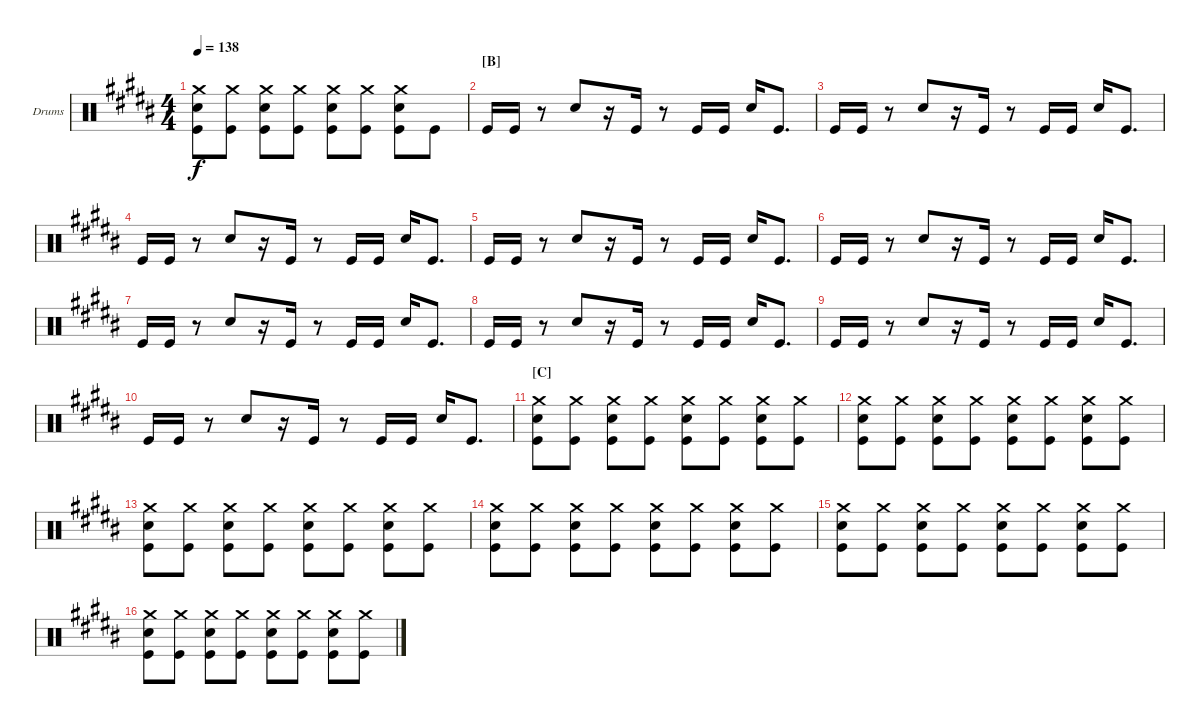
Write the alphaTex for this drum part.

\bracketExtendMode groupsimilarinstruments
\firstSystemTrackNameOrientation horizontal
\otherSystemsTrackNameOrientation horizontal
\track ("Fabrizio Moretti" "Drums") {instrument percussion}
\staff {score}
\articulation defaults
\ts (4 4)
\tempo 138
\clef neutral
\ks b
("Snare (hit) 2" "Kick (hit)" "Crash medium (hit)").8{dy f} ("Kick (hit)" "Crash medium (hit)").8 ("Snare (hit) 2" "Kick (hit)" "Crash medium (hit)").8 ("Kick (hit)" "Crash medium (hit)").8 ("Snare (hit) 2" "Kick (hit)" "Crash medium (hit)").8 ("Kick (hit)" "Crash medium (hit)").8 ("Snare (hit) 2" "Kick (hit)" "Crash medium (hit)").8 "Kick (hit)".8 |
\section ("B" "")
"Kick (hit)".16 "Kick (hit)".16 r.8 "Snare (hit) 2".8 r.16 "Kick (hit)".16 r.8 "Kick (hit)".16 "Kick (hit)".16 "Snare (hit) 2".16 "Kick (hit)".8{d} |
"Kick (hit)".16 "Kick (hit)".16 r.8 "Snare (hit) 2".8 r.16 "Kick (hit)".16 r.8 "Kick (hit)".16 "Kick (hit)".16 "Snare (hit) 2".16 "Kick (hit)".8{d} |
"Kick (hit)".16 "Kick (hit)".16 r.8 "Snare (hit) 2".8 r.16 "Kick (hit)".16 r.8 "Kick (hit)".16 "Kick (hit)".16 "Snare (hit) 2".16 "Kick (hit)".8{d} |
"Kick (hit)".16 "Kick (hit)".16 r.8 "Snare (hit) 2".8 r.16 "Kick (hit)".16 r.8 "Kick (hit)".16 "Kick (hit)".16 "Snare (hit) 2".16 "Kick (hit)".8{d} |
"Kick (hit)".16 "Kick (hit)".16 r.8 "Snare (hit) 2".8 r.16 "Kick (hit)".16 r.8 "Kick (hit)".16 "Kick (hit)".16 "Snare (hit) 2".16 "Kick (hit)".8{d} |
"Kick (hit)".16 "Kick (hit)".16 r.8 "Snare (hit) 2".8 r.16 "Kick (hit)".16 r.8 "Kick (hit)".16 "Kick (hit)".16 "Snare (hit) 2".16 "Kick (hit)".8{d} |
"Kick (hit)".16 "Kick (hit)".16 r.8 "Snare (hit) 2".8 r.16 "Kick (hit)".16 r.8 "Kick (hit)".16 "Kick (hit)".16 "Snare (hit) 2".16 "Kick (hit)".8{d} |
"Kick (hit)".16 "Kick (hit)".16 r.8 "Snare (hit) 2".8 r.16 "Kick (hit)".16 r.8 "Kick (hit)".16 "Kick (hit)".16 "Snare (hit) 2".16 "Kick (hit)".8{d} |
"Kick (hit)".16 "Kick (hit)".16 r.8 "Snare (hit) 2".8 r.16 "Kick (hit)".16 r.8 "Kick (hit)".16 "Kick (hit)".16 "Snare (hit) 2".16 "Kick (hit)".8{d} |
\section ("C" "")
("Snare (hit) 2" "Kick (hit)" "Crash medium (hit)").8 ("Kick (hit)" "Crash medium (hit)").8 ("Snare (hit) 2" "Kick (hit)" "Crash medium (hit)").8 ("Kick (hit)" "Crash medium (hit)").8 ("Snare (hit) 2" "Kick (hit)" "Crash medium (hit)").8 ("Kick (hit)" "Crash medium (hit)").8 ("Snare (hit) 2" "Kick (hit)" "Crash medium (hit)").8 ("Kick (hit)" "Crash medium (hit)").8 |
("Snare (hit) 2" "Kick (hit)" "Crash medium (hit)").8 ("Kick (hit)" "Crash medium (hit)").8 ("Snare (hit) 2" "Kick (hit)" "Crash medium (hit)").8 ("Kick (hit)" "Crash medium (hit)").8 ("Snare (hit) 2" "Kick (hit)" "Crash medium (hit)").8 ("Kick (hit)" "Crash medium (hit)").8 ("Snare (hit) 2" "Kick (hit)" "Crash medium (hit)").8 ("Kick (hit)" "Crash medium (hit)").8 |
("Snare (hit) 2" "Kick (hit)" "Crash medium (hit)").8 ("Kick (hit)" "Crash medium (hit)").8 ("Snare (hit) 2" "Kick (hit)" "Crash medium (hit)").8 ("Kick (hit)" "Crash medium (hit)").8 ("Snare (hit) 2" "Kick (hit)" "Crash medium (hit)").8 ("Kick (hit)" "Crash medium (hit)").8 ("Snare (hit) 2" "Kick (hit)" "Crash medium (hit)").8 ("Kick (hit)" "Crash medium (hit)").8 |
("Snare (hit) 2" "Kick (hit)" "Crash medium (hit)").8 ("Kick (hit)" "Crash medium (hit)").8 ("Snare (hit) 2" "Kick (hit)" "Crash medium (hit)").8 ("Kick (hit)" "Crash medium (hit)").8 ("Snare (hit) 2" "Kick (hit)" "Crash medium (hit)").8 ("Kick (hit)" "Crash medium (hit)").8 ("Snare (hit) 2" "Kick (hit)" "Crash medium (hit)").8 ("Kick (hit)" "Crash medium (hit)").8 |
("Snare (hit) 2" "Kick (hit)" "Crash medium (hit)").8 ("Kick (hit)" "Crash medium (hit)").8 ("Snare (hit) 2" "Kick (hit)" "Crash medium (hit)").8 ("Kick (hit)" "Crash medium (hit)").8 ("Snare (hit) 2" "Kick (hit)" "Crash medium (hit)").8 ("Kick (hit)" "Crash medium (hit)").8 ("Snare (hit) 2" "Kick (hit)" "Crash medium (hit)").8 ("Kick (hit)" "Crash medium (hit)").8 |
("Snare (hit) 2" "Kick (hit)" "Crash medium (hit)").8 ("Kick (hit)" "Crash medium (hit)").8 ("Snare (hit) 2" "Kick (hit)" "Crash medium (hit)").8 ("Kick (hit)" "Crash medium (hit)").8 ("Snare (hit) 2" "Kick (hit)" "Crash medium (hit)").8 ("Kick (hit)" "Crash medium (hit)").8 ("Snare (hit) 2" "Kick (hit)" "Crash medium (hit)").8 ("Kick (hit)" "Crash medium (hit)").8
